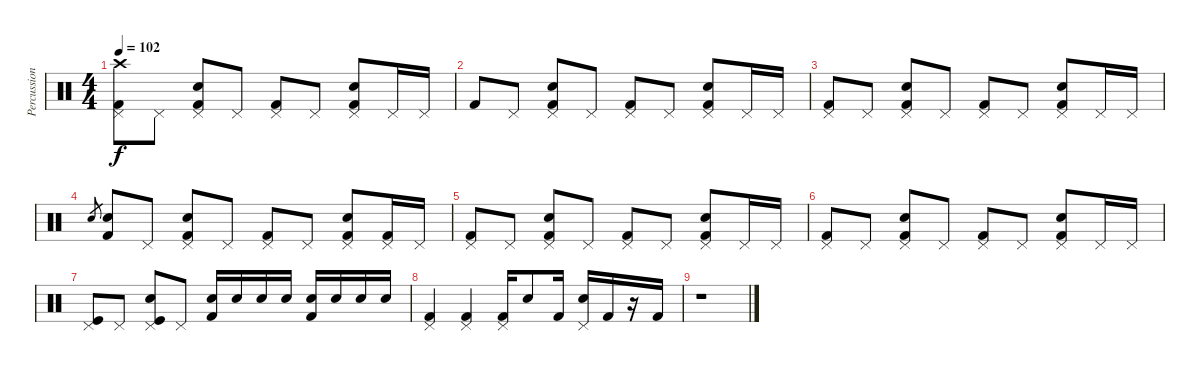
\track ("Percussion" "Percussion") {instrument percussion}
\staff {score}
\articulation defaults
\ts (4 4)
\tempo 102
\clef neutral
\ks c
("Crash high (hit)" "Pedal Hi-Hat (hit)" "Kick (hit) 2").8{dy f} "Pedal Hi-Hat (hit)".8 ("Pedal Hi-Hat (hit)" "Snare (hit) 2" "Kick (hit) 2").8 "Pedal Hi-Hat (hit)".8 ("Pedal Hi-Hat (hit)" "Kick (hit) 2").8 "Pedal Hi-Hat (hit)".8 ("Pedal Hi-Hat (hit)" "Snare (hit) 2" "Kick (hit) 2").8 "Pedal Hi-Hat (hit)".16 "Pedal Hi-Hat (hit)".16 |
"Kick (hit) 2".8 "Pedal Hi-Hat (hit)".8 ("Pedal Hi-Hat (hit)" "Snare (hit) 2" "Kick (hit) 2").8 "Pedal Hi-Hat (hit)".8 ("Pedal Hi-Hat (hit)" "Kick (hit) 2").8 "Pedal Hi-Hat (hit)".8 ("Pedal Hi-Hat (hit)" "Snare (hit) 2" "Kick (hit) 2").8 "Pedal Hi-Hat (hit)".16 "Pedal Hi-Hat (hit)".16 |
("Pedal Hi-Hat (hit)" "Kick (hit) 2").8 "Pedal Hi-Hat (hit)".8 ("Pedal Hi-Hat (hit)" "Snare (hit) 2" "Kick (hit) 2").8 "Pedal Hi-Hat (hit)".8 ("Pedal Hi-Hat (hit)" "Kick (hit) 2").8 "Pedal Hi-Hat (hit)".8 ("Pedal Hi-Hat (hit)" "Snare (hit) 2" "Kick (hit) 2").8 "Pedal Hi-Hat (hit)".16 "Pedal Hi-Hat (hit)".16 |
"Snare (hit) 2".8{gr} ("Snare (hit) 2" "Kick (hit) 2").8 "Pedal Hi-Hat (hit)".8 ("Pedal Hi-Hat (hit)" "Snare (hit) 2" "Kick (hit) 2").8 "Pedal Hi-Hat (hit)".8 ("Pedal Hi-Hat (hit)" "Kick (hit) 2").8 "Pedal Hi-Hat (hit)".8 ("Pedal Hi-Hat (hit)" "Snare (hit) 2" "Kick (hit) 2").8 ("Pedal Hi-Hat (hit)" "Kick (hit) 2").16 "Pedal Hi-Hat (hit)".16 |
("Pedal Hi-Hat (hit)" "Kick (hit) 2").8 "Pedal Hi-Hat (hit)".8 ("Pedal Hi-Hat (hit)" "Snare (hit) 2" "Kick (hit) 2").8 "Pedal Hi-Hat (hit)".8 ("Pedal Hi-Hat (hit)" "Kick (hit) 2").8 "Pedal Hi-Hat (hit)".8 ("Pedal Hi-Hat (hit)" "Snare (hit) 2" "Kick (hit) 2").8 "Pedal Hi-Hat (hit)".16 "Pedal Hi-Hat (hit)".16 |
("Pedal Hi-Hat (hit)" "Kick (hit) 2").8 "Pedal Hi-Hat (hit)".8 ("Pedal Hi-Hat (hit)" "Snare (hit) 2" "Kick (hit) 2").8 "Pedal Hi-Hat (hit)".8 ("Pedal Hi-Hat (hit)" "Kick (hit) 2").8 "Pedal Hi-Hat (hit)".8 ("Pedal Hi-Hat (hit)" "Snare (hit) 2" "Kick (hit) 2").8 "Pedal Hi-Hat (hit)".16 "Pedal Hi-Hat (hit)".16 |
("Pedal Hi-Hat (hit)" "Kick (hit)").8 "Pedal Hi-Hat (hit)".8 ("Pedal Hi-Hat (hit)" "Snare (hit) 2" "Kick (hit)").8 "Pedal Hi-Hat (hit)".8 ("Snare (hit) 2" "Kick (hit) 2").16 "Snare (hit) 2".16 "Snare (hit) 2".16 "Snare (hit) 2".16 ("Snare (hit) 2" "Kick (hit) 2").16 "Snare (hit) 2".16 "Snare (hit) 2".16 "Snare (hit) 2".16 |
("Pedal Hi-Hat (hit)" "Kick (hit) 2").4 ("Pedal Hi-Hat (hit)" "Kick (hit) 2").4 ("Pedal Hi-Hat (hit)" "Kick (hit) 2").16 "Snare (hit) 2".8 "Kick (hit) 2".16 ("Pedal Hi-Hat (hit)" "Snare (hit) 2").16 "Kick (hit) 2".16 r.16 "Kick (hit) 2".16 |
r.1
